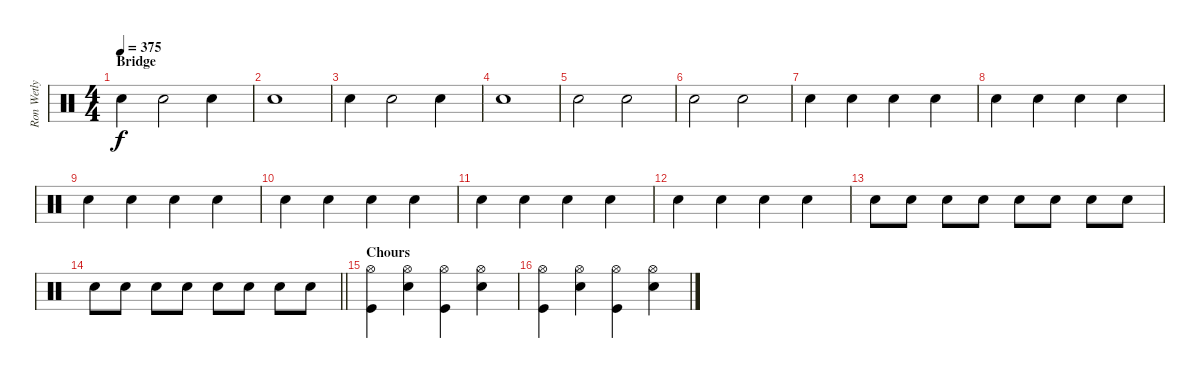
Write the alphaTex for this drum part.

\track ("Ron Wetly (Drums)" "Ron Wetly ") {instrument percussion}
\staff {score}
\articulation defaults
\ts (4 4)
\section ("" "Bridge")
\tempo 375
\clef neutral
\ks c "Snare (hit) 2".4{dy f} "Snare (hit) 2".2 "Snare (hit) 2".4
|
"Snare (hit) 2".1 |
"Snare (hit) 2".4 "Snare (hit) 2".2 "Snare (hit) 2".4 |
"Snare (hit) 2".1 |
"Snare (hit) 2".2 "Snare (hit) 2".2 |
"Snare (hit) 2".2 "Snare (hit) 2".2 |
"Snare (hit) 2".4 "Snare (hit) 2".4 "Snare (hit) 2".4 "Snare (hit) 2".4 |
"Snare (hit) 2".4 "Snare (hit) 2".4 "Snare (hit) 2".4 "Snare (hit) 2".4 |
"Snare (hit) 2".4 "Snare (hit) 2".4 "Snare (hit) 2".4 "Snare (hit) 2".4 |
"Snare (hit) 2".4 "Snare (hit) 2".4 "Snare (hit) 2".4 "Snare (hit) 2".4 |
"Snare (hit) 2".4 "Snare (hit) 2".4 "Snare (hit) 2".4 "Snare (hit) 2".4 |
"Snare (hit) 2".4 "Snare (hit) 2".4 "Snare (hit) 2".4 "Snare (hit) 2".4 |
"Snare (hit) 2".8 "Snare (hit) 2".8 "Snare (hit) 2".8 "Snare (hit) 2".8 "Snare (hit) 2".8 "Snare (hit) 2".8 "Snare (hit) 2".8 "Snare (hit) 2".8 |
\barLineRight lightlight "Snare (hit) 2".8 "Snare (hit) 2".8 "Snare (hit) 2".8 "Snare (hit) 2".8 "Snare (hit) 2".8 "Snare (hit) 2".8 "Snare (hit) 2".8 "Snare (hit) 2".8
|
\section ("" "Chours")
("Hi-Hat (open)" "Kick (hit)").4 ("Hi-Hat (open)" "Snare (hit) 2").4 ("Hi-Hat (open)" "Kick (hit)").4 ("Hi-Hat (open)" "Snare (hit) 2").4 |
("Hi-Hat (open)" "Kick (hit)").4 ("Hi-Hat (open)" "Snare (hit) 2").4 ("Hi-Hat (open)" "Kick (hit)").4 ("Hi-Hat (open)" "Snare (hit) 2").4
